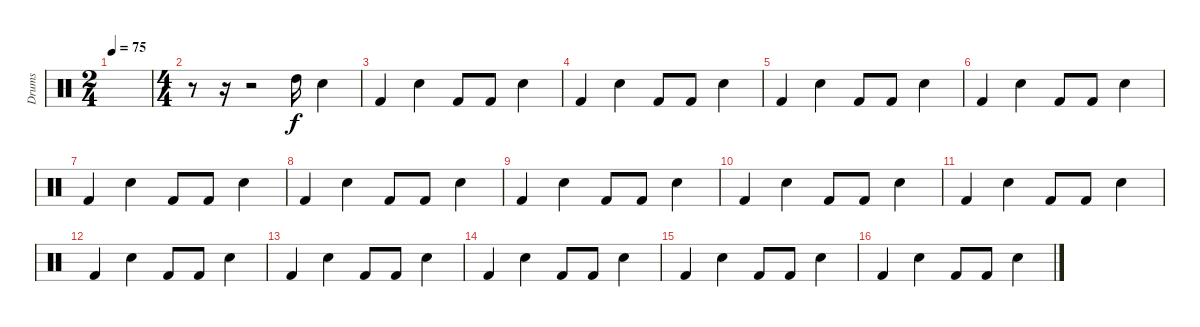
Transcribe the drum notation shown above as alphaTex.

\track ("Drums" "Drums") {instrument percussion}
\staff {score}
\articulation defaults
\ts (2 4)
\tempo 75
\clef neutral
\ks c
|
\ts (4 4)
r.8 r.16 r.2 "High Tom (hit)".16 "Snare (hit) 2".4 |
"Kick (hit) 2".4 "Snare (hit) 2".4 "Kick (hit) 2".8 "Kick (hit) 2".8 "Snare (hit) 2".4 |
"Kick (hit) 2".4 "Snare (hit) 2".4 "Kick (hit) 2".8 "Kick (hit) 2".8 "Snare (hit) 2".4 |
"Kick (hit) 2".4 "Snare (hit) 2".4 "Kick (hit) 2".8 "Kick (hit) 2".8 "Snare (hit) 2".4 |
"Kick (hit) 2".4 "Snare (hit) 2".4 "Kick (hit) 2".8 "Kick (hit) 2".8 "Snare (hit) 2".4 |
"Kick (hit) 2".4 "Snare (hit) 2".4 "Kick (hit) 2".8 "Kick (hit) 2".8 "Snare (hit) 2".4 |
"Kick (hit) 2".4 "Snare (hit) 2".4 "Kick (hit) 2".8 "Kick (hit) 2".8 "Snare (hit) 2".4 |
"Kick (hit) 2".4 "Snare (hit) 2".4 "Kick (hit) 2".8 "Kick (hit) 2".8 "Snare (hit) 2".4 |
"Kick (hit) 2".4 "Snare (hit) 2".4 "Kick (hit) 2".8 "Kick (hit) 2".8 "Snare (hit) 2".4 |
"Kick (hit) 2".4 "Snare (hit) 2".4 "Kick (hit) 2".8 "Kick (hit) 2".8 "Snare (hit) 2".4 |
"Kick (hit) 2".4 "Snare (hit) 2".4 "Kick (hit) 2".8 "Kick (hit) 2".8 "Snare (hit) 2".4 |
"Kick (hit) 2".4 "Snare (hit) 2".4 "Kick (hit) 2".8 "Kick (hit) 2".8 "Snare (hit) 2".4 |
"Kick (hit) 2".4 "Snare (hit) 2".4 "Kick (hit) 2".8 "Kick (hit) 2".8 "Snare (hit) 2".4 |
"Kick (hit) 2".4 "Snare (hit) 2".4 "Kick (hit) 2".8 "Kick (hit) 2".8 "Snare (hit) 2".4 |
"Kick (hit) 2".4 "Snare (hit) 2".4 "Kick (hit) 2".8 "Kick (hit) 2".8 "Snare (hit) 2".4
